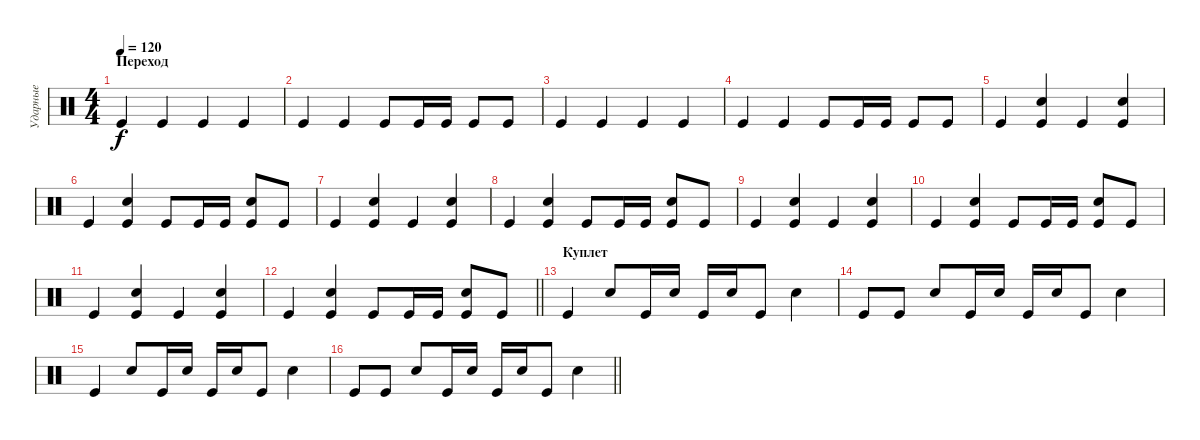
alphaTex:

\track ("Ударные" "Ударные") {instrument percussion}
\staff {score}
\articulation defaults
\ts (4 4)
\section ("" "Переход")
\tempo 120
\clef neutral
\ks c "Kick (hit)".4{dy f} "Kick (hit)".4 "Kick (hit)".4 "Kick (hit)".4
|
"Kick (hit)".4 "Kick (hit)".4 "Kick (hit)".8 "Kick (hit)".16 "Kick (hit)".16 "Kick (hit)".8 "Kick (hit)".8 |
"Kick (hit)".4 "Kick (hit)".4 "Kick (hit)".4 "Kick (hit)".4 |
"Kick (hit)".4 "Kick (hit)".4 "Kick (hit)".8 "Kick (hit)".16 "Kick (hit)".16 "Kick (hit)".8 "Kick (hit)".8 |
"Kick (hit)".4 ("Kick (hit)" "Snare (hit) 2").4 "Kick (hit)".4 ("Kick (hit)" "Snare (hit) 2").4 |
"Kick (hit)".4 ("Kick (hit)" "Snare (hit) 2").4 "Kick (hit)".8 "Kick (hit)".16 "Kick (hit)".16 ("Kick (hit)" "Snare (hit) 2").8 "Kick (hit)".8 |
"Kick (hit)".4 ("Kick (hit)" "Snare (hit) 2").4 "Kick (hit)".4 ("Kick (hit)" "Snare (hit) 2").4 |
"Kick (hit)".4 ("Kick (hit)" "Snare (hit) 2").4 "Kick (hit)".8 "Kick (hit)".16 "Kick (hit)".16 ("Kick (hit)" "Snare (hit) 2").8 "Kick (hit)".8 |
"Kick (hit)".4 ("Kick (hit)" "Snare (hit) 2").4 "Kick (hit)".4 ("Kick (hit)" "Snare (hit) 2").4 |
"Kick (hit)".4 ("Kick (hit)" "Snare (hit) 2").4 "Kick (hit)".8 "Kick (hit)".16 "Kick (hit)".16 ("Kick (hit)" "Snare (hit) 2").8 "Kick (hit)".8 |
"Kick (hit)".4 ("Kick (hit)" "Snare (hit) 2").4 "Kick (hit)".4 ("Kick (hit)" "Snare (hit) 2").4 |
\barLineRight lightlight "Kick (hit)".4
("Kick (hit)" "Snare (hit) 2").4 "Kick (hit)".8 "Kick (hit)".16 "Kick (hit)".16 ("Kick (hit)" "Snare (hit) 2").8 "Kick (hit)".8 |
\section ("" "Куплет")
"Kick (hit)".4 "Snare (hit) 2".8 "Kick (hit)".16 "Snare (hit) 2".16 "Kick (hit)".16 "Snare (hit) 2".16 "Kick (hit)".8 "Snare (hit) 2".4 |
"Kick (hit)".8 "Kick (hit)".8 "Snare (hit) 2".8 "Kick (hit)".16 "Snare (hit) 2".16 "Kick (hit)".16 "Snare (hit) 2".16 "Kick (hit)".8 "Snare (hit) 2".4 |
"Kick (hit)".4 "Snare (hit) 2".8 "Kick (hit)".16 "Snare (hit) 2".16 "Kick (hit)".16 "Snare (hit) 2".16 "Kick (hit)".8 "Snare (hit) 2".4 |
\barLineRight lightlight "Kick (hit)".8 "Kick (hit)".8 "Snare (hit) 2".8 "Kick (hit)".16 "Snare (hit) 2".16 "Kick (hit)".16 "Snare (hit) 2".16 "Kick (hit)".8 "Snare (hit) 2".4
